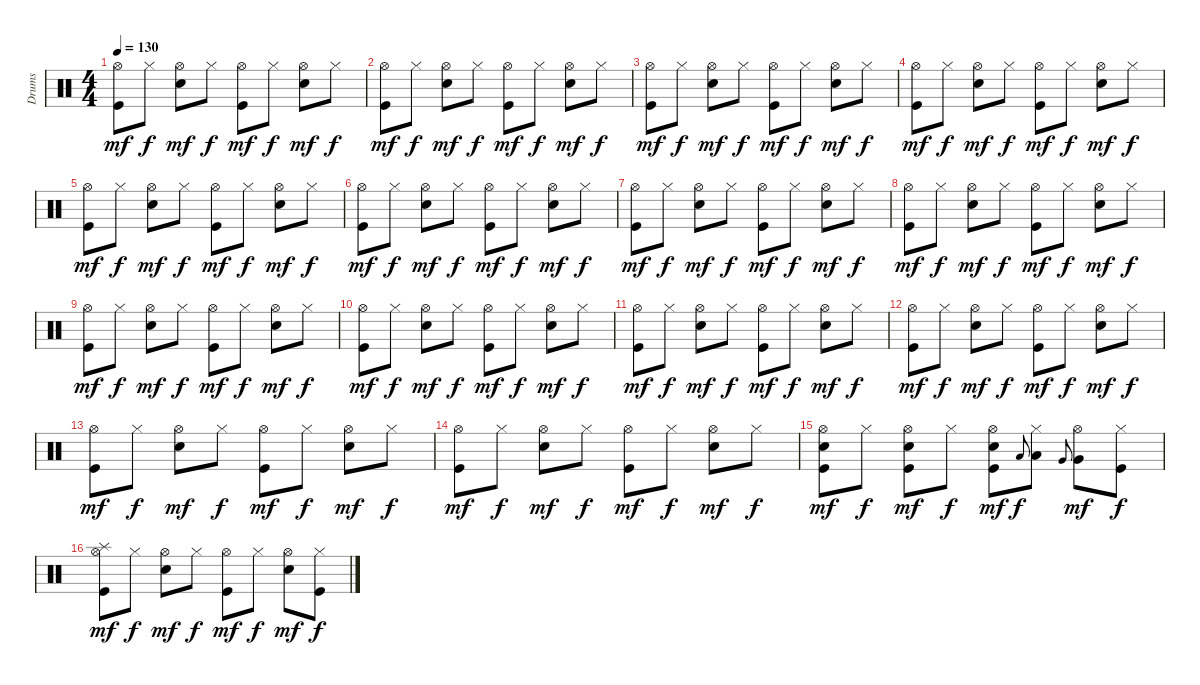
\track ("Drums" "Drums") {instrument percussion}
\staff {score}
\articulation defaults
\ts (4 4)
\tempo 130
\clef neutral
\ks c
("Hi-Hat (open)" "Kick (hit)").8{dy mf} "Hi-Hat (closed)".8{dy f} ("Electric Snare (hit)" "Hi-Hat (open)").8{dy mf} "Hi-Hat (closed)".8{dy f} ("Hi-Hat (open)" "Kick (hit)").8{dy mf} "Hi-Hat (closed)".8{dy f} ("Electric Snare (hit)" "Hi-Hat (open)").8{dy mf} "Hi-Hat (closed)".8{dy f} |
("Hi-Hat (open)" "Kick (hit)").8{dy mf} "Hi-Hat (closed)".8{dy f} ("Electric Snare (hit)" "Hi-Hat (open)").8{dy mf} "Hi-Hat (closed)".8{dy f} ("Hi-Hat (open)" "Kick (hit)").8{dy mf} "Hi-Hat (closed)".8{dy f} ("Electric Snare (hit)" "Hi-Hat (open)").8{dy mf} "Hi-Hat (closed)".8{dy f} |
("Hi-Hat (open)" "Kick (hit)").8{dy mf} "Hi-Hat (closed)".8{dy f} ("Electric Snare (hit)" "Hi-Hat (open)").8{dy mf} "Hi-Hat (closed)".8{dy f} ("Hi-Hat (open)" "Kick (hit)").8{dy mf} "Hi-Hat (closed)".8{dy f} ("Electric Snare (hit)" "Hi-Hat (open)").8{dy mf} "Hi-Hat (closed)".8{dy f} |
("Hi-Hat (open)" "Kick (hit)").8{dy mf} "Hi-Hat (closed)".8{dy f} ("Electric Snare (hit)" "Hi-Hat (open)").8{dy mf} "Hi-Hat (closed)".8{dy f} ("Hi-Hat (open)" "Kick (hit)").8{dy mf} "Hi-Hat (closed)".8{dy f} ("Electric Snare (hit)" "Hi-Hat (open)").8{dy mf} "Hi-Hat (closed)".8{dy f} |
("Hi-Hat (open)" "Kick (hit)").8{dy mf} "Hi-Hat (closed)".8{dy f} ("Electric Snare (hit)" "Hi-Hat (open)").8{dy mf} "Hi-Hat (closed)".8{dy f} ("Hi-Hat (open)" "Kick (hit)").8{dy mf} "Hi-Hat (closed)".8{dy f} ("Electric Snare (hit)" "Hi-Hat (open)").8{dy mf} "Hi-Hat (closed)".8{dy f} |
("Hi-Hat (open)" "Kick (hit)").8{dy mf} "Hi-Hat (closed)".8{dy f} ("Electric Snare (hit)" "Hi-Hat (open)").8{dy mf} "Hi-Hat (closed)".8{dy f} ("Hi-Hat (open)" "Kick (hit)").8{dy mf} "Hi-Hat (closed)".8{dy f} ("Electric Snare (hit)" "Hi-Hat (open)").8{dy mf} "Hi-Hat (closed)".8{dy f} |
("Hi-Hat (open)" "Kick (hit)").8{dy mf} "Hi-Hat (closed)".8{dy f} ("Electric Snare (hit)" "Hi-Hat (open)").8{dy mf} "Hi-Hat (closed)".8{dy f} ("Hi-Hat (open)" "Kick (hit)").8{dy mf} "Hi-Hat (closed)".8{dy f} ("Electric Snare (hit)" "Hi-Hat (open)").8{dy mf} "Hi-Hat (closed)".8{dy f} |
("Hi-Hat (open)" "Kick (hit)").8{dy mf} "Hi-Hat (closed)".8{dy f} ("Electric Snare (hit)" "Hi-Hat (open)").8{dy mf} "Hi-Hat (closed)".8{dy f} ("Hi-Hat (open)" "Kick (hit)").8{dy mf} "Hi-Hat (closed)".8{dy f} ("Electric Snare (hit)" "Hi-Hat (open)").8{dy mf} "Hi-Hat (closed)".8{dy f} |
("Hi-Hat (open)" "Kick (hit)").8{dy mf} "Hi-Hat (closed)".8{dy f} ("Electric Snare (hit)" "Hi-Hat (open)").8{dy mf} "Hi-Hat (closed)".8{dy f} ("Hi-Hat (open)" "Kick (hit)").8{dy mf} "Hi-Hat (closed)".8{dy f} ("Electric Snare (hit)" "Hi-Hat (open)").8{dy mf} "Hi-Hat (closed)".8{dy f} |
("Hi-Hat (open)" "Kick (hit)").8{dy mf} "Hi-Hat (closed)".8{dy f} ("Electric Snare (hit)" "Hi-Hat (open)").8{dy mf} "Hi-Hat (closed)".8{dy f} ("Hi-Hat (open)" "Kick (hit)").8{dy mf} "Hi-Hat (closed)".8{dy f} ("Electric Snare (hit)" "Hi-Hat (open)").8{dy mf} "Hi-Hat (closed)".8{dy f} |
("Hi-Hat (open)" "Kick (hit)").8{dy mf} "Hi-Hat (closed)".8{dy f} ("Electric Snare (hit)" "Hi-Hat (open)").8{dy mf} "Hi-Hat (closed)".8{dy f} ("Hi-Hat (open)" "Kick (hit)").8{dy mf} "Hi-Hat (closed)".8{dy f} ("Electric Snare (hit)" "Hi-Hat (open)").8{dy mf} "Hi-Hat (closed)".8{dy f} |
("Hi-Hat (open)" "Kick (hit)").8{dy mf} "Hi-Hat (closed)".8{dy f} ("Electric Snare (hit)" "Hi-Hat (open)").8{dy mf} "Hi-Hat (closed)".8{dy f} ("Hi-Hat (open)" "Kick (hit)").8{dy mf} "Hi-Hat (closed)".8{dy f} ("Electric Snare (hit)" "Hi-Hat (open)").8{dy mf} "Hi-Hat (closed)".8{dy f} |
("Hi-Hat (open)" "Kick (hit)").8{dy mf} "Hi-Hat (closed)".8{dy f} ("Electric Snare (hit)" "Hi-Hat (open)").8{dy mf} "Hi-Hat (closed)".8{dy f} ("Hi-Hat (open)" "Kick (hit)").8{dy mf} "Hi-Hat (closed)".8{dy f} ("Electric Snare (hit)" "Hi-Hat (open)").8{dy mf} "Hi-Hat (closed)".8{dy f} |
("Hi-Hat (open)" "Kick (hit)").8{dy mf} "Hi-Hat (closed)".8{dy f} ("Electric Snare (hit)" "Hi-Hat (open)").8{dy mf} "Hi-Hat (closed)".8{dy f} ("Hi-Hat (open)" "Kick (hit)").8{dy mf} "Hi-Hat (closed)".8{dy f} ("Electric Snare (hit)" "Hi-Hat (open)").8{dy mf} "Hi-Hat (closed)".8{dy f} |
("Electric Snare (hit)" "Hi-Hat (open)" "Kick (hit)").8{dy mf} "Hi-Hat (closed)".8{dy f} ("Electric Snare (hit)" "Hi-Hat (open)" "Kick (hit)").8{dy mf} "Hi-Hat (closed)".8{dy f} ("Electric Snare (hit)" "Hi-Hat (open)" "Kick (hit)").8{dy mf} "Low Tom (hit)".8{gr onbeat dy f} ("Low Tom (hit)" "Hi-Hat (closed)").8 "Very Low Tom (hit)".8{gr onbeat} ("Very Low Tom (hit)" "Hi-Hat (open)").8{dy mf} ("Hi-Hat (closed)" "Kick (hit)").8{dy f} |
("Splash (hit)" "Hi-Hat (open)" "Kick (hit)").8{dy mf} "Hi-Hat (closed)".8{dy f} ("Electric Snare (hit)" "Hi-Hat (open)").8{dy mf} "Hi-Hat (closed)".8{dy f} ("Hi-Hat (open)" "Kick (hit)").8{dy mf} "Hi-Hat (closed)".8{dy f} ("Electric Snare (hit)" "Hi-Hat (open)").8{dy mf} ("Hi-Hat (closed)" "Kick (hit)").8{dy f}
